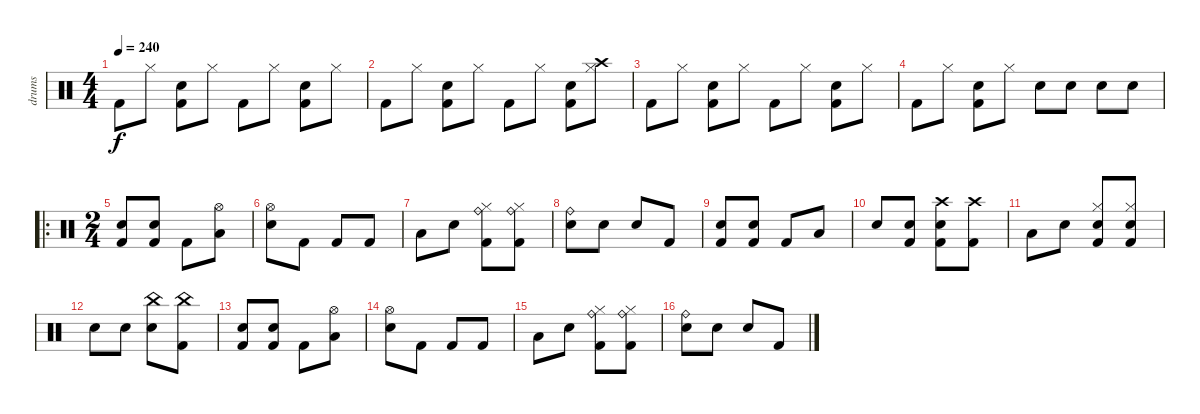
\track ("drums" "drums") {instrument percussion}
\staff {score}
\articulation defaults
\ts (4 4)
\tempo 240
\clef neutral
\ks c "Kick (hit) 2".8{dy f} "Hi-Hat (closed)".8
("Snare (hit) 2" "Kick (hit) 2").8 "Hi-Hat (closed)".8 "Kick (hit) 2".8 "Hi-Hat (closed)".8 ("Snare (hit) 2" "Kick (hit) 2").8 "Hi-Hat (closed)".8 |
"Kick (hit) 2".8 "Hi-Hat (closed)".8 ("Snare (hit) 2" "Kick (hit) 2").8 "Hi-Hat (closed)".8 "Kick (hit) 2".8 "Hi-Hat (closed)".8 ("Snare (hit) 2" "Kick (hit) 2").8 ("Crash high (hit)" "Hi-Hat (closed)").8 |
"Kick (hit) 2".8 "Hi-Hat (closed)".8 ("Snare (hit) 2" "Kick (hit) 2").8 "Hi-Hat (closed)".8 "Kick (hit) 2".8 "Hi-Hat (closed)".8 ("Snare (hit) 2" "Kick (hit) 2").8 "Hi-Hat (closed)".8 |
"Kick (hit) 2".8 "Hi-Hat (closed)".8 ("Snare (hit) 2" "Kick (hit) 2").8 "Hi-Hat (closed)".8 "Electric Snare (hit)".8 "Snare (hit) 2".8 "Electric Snare (hit)".8 "Snare (hit) 2".8 |
\ro
\ts (2 4)
("Electric Snare (hit)" "Kick (hit) 2").8 ("Electric Snare (hit)" "Kick (hit) 2").8 "Kick (hit) 2".8 ("Hi-Hat (open)" "Low Tom (hit)").8 |
("Hi-Hat (open)" "Snare (hit) 2").8 "Kick (hit) 2".8 "Kick (hit) 2".8 "Kick (hit) 2".8 |
"Low Tom (hit)".8 "Snare (hit) 2".8 ("Ride (bell)" "Hi-Hat (closed)" "Kick (hit) 2").8 ("Ride (bell)" "Hi-Hat (closed)" "Kick (hit) 2").8 |
("Ride (bell)" "Snare (hit) 2").8 "Electric Snare (hit)".8 "Electric Snare (hit)".8 "Kick (hit) 2".8 |
("Electric Snare (hit)" "Kick (hit) 2").8 ("Electric Snare (hit)" "Kick (hit) 2").8 "Kick (hit) 2".8 "Low Tom (hit)".8 |
"Snare (hit) 2".8 ("Electric Snare (hit)" "Kick (hit) 2").8 ("Crash high (hit)" "Electric Snare (hit)" "Kick (hit) 2").8 ("Crash high (hit)" "Kick (hit) 2").8 |
"Low Tom (hit)".8 "Snare (hit) 2".8 ("Hi-Hat (closed)" "Electric Snare (hit)" "Kick (hit) 2").8 ("Hi-Hat (closed)" "Electric Snare (hit)" "Kick (hit) 2").8 |
"Snare (hit) 2".8 "Electric Snare (hit)".8 ("China (hit)" "Electric Snare (hit)").8 ("China (hit)" "Kick (hit) 2").8 |
("Electric Snare (hit)" "Kick (hit) 2").8 ("Electric Snare (hit)" "Kick (hit) 2").8 "Kick (hit) 2".8 ("Hi-Hat (open)" "Low Tom (hit)").8 |
("Hi-Hat (open)" "Snare (hit) 2").8 "Kick (hit) 2".8 "Kick (hit) 2".8 "Kick (hit) 2".8 |
"Low Tom (hit)".8 "Snare (hit) 2".8 ("Ride (bell)" "Hi-Hat (closed)" "Kick (hit) 2").8 ("Ride (bell)" "Hi-Hat (closed)" "Kick (hit) 2").8 |
("Ride (bell)" "Snare (hit) 2").8 "Electric Snare (hit)".8 "Electric Snare (hit)".8 "Kick (hit) 2".8
